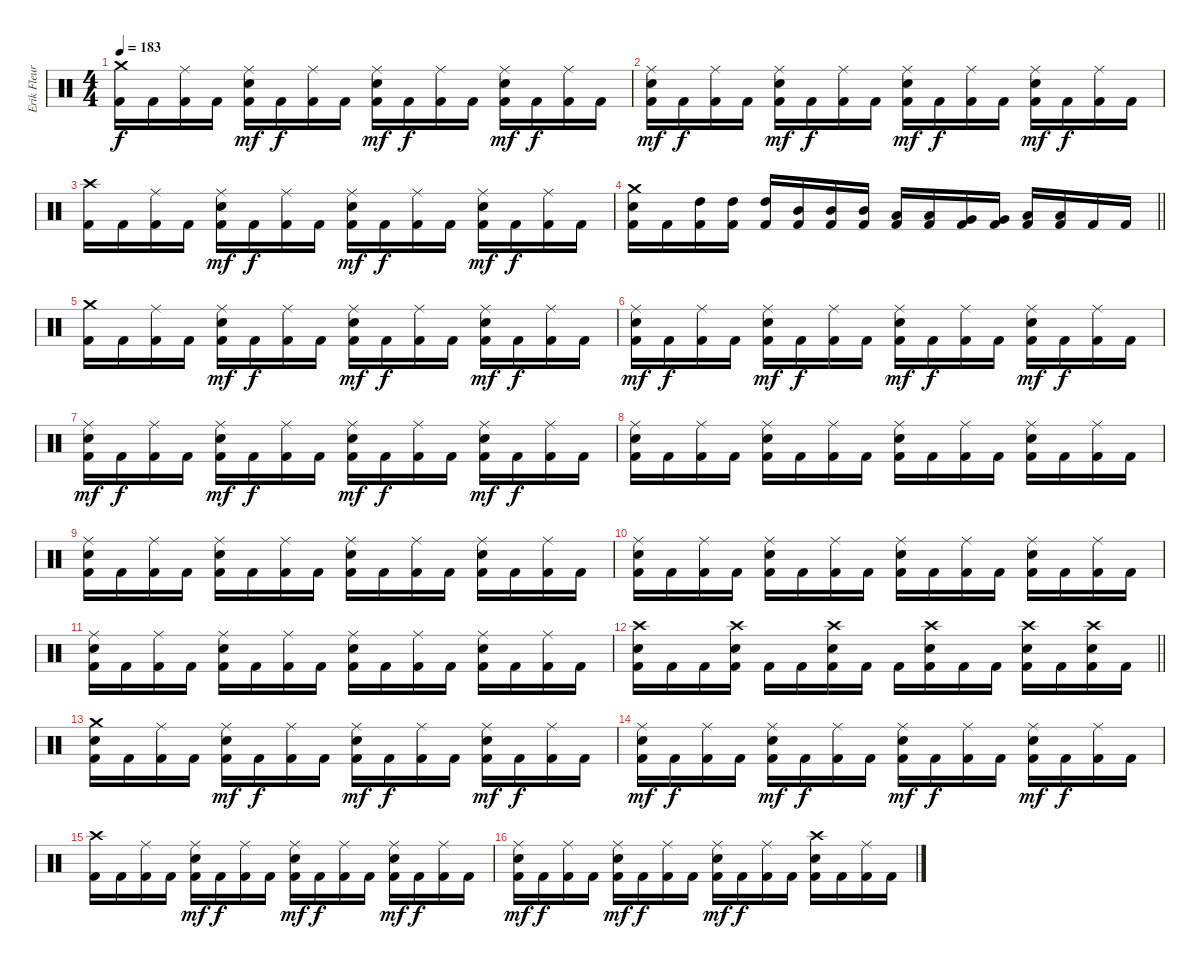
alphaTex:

\track ("Erik Fleuren" "Erik Fleur") {instrument percussion}
\staff {score}
\articulation defaults
\ts (4 4)
\tempo 183
\clef neutral
\ks c
("Crash medium (hit)" "Kick (hit) 2").16{dy f} "Kick (hit) 2".16 ("Ride (middle)" "Kick (hit) 2").16 "Kick (hit) 2".16 ("Ride (middle)" "Electric Snare (hit)" "Kick (hit) 2").16{dy mf} "Kick (hit) 2".16{dy f} ("Ride (middle)" "Kick (hit) 2").16 "Kick (hit) 2".16 ("Ride (middle)" "Electric Snare (hit)" "Kick (hit) 2").16{dy mf} "Kick (hit) 2".16{dy f} ("Ride (middle)" "Kick (hit) 2").16 "Kick (hit) 2".16 ("Ride (middle)" "Electric Snare (hit)" "Kick (hit) 2").16{dy mf} "Kick (hit) 2".16{dy f} ("Ride (middle)" "Kick (hit) 2").16 "Kick (hit) 2".16 |
("Ride (middle)" "Electric Snare (hit)" "Kick (hit) 2").16{dy mf} "Kick (hit) 2".16{dy f} ("Ride (middle)" "Kick (hit) 2").16 "Kick (hit) 2".16 ("Ride (middle)" "Electric Snare (hit)" "Kick (hit) 2").16{dy mf} "Kick (hit) 2".16{dy f} ("Ride (middle)" "Kick (hit) 2").16 "Kick (hit) 2".16 ("Ride (middle)" "Electric Snare (hit)" "Kick (hit) 2").16{dy mf} "Kick (hit) 2".16{dy f} ("Ride (middle)" "Kick (hit) 2").16 "Kick (hit) 2".16 ("Ride (middle)" "Electric Snare (hit)" "Kick (hit) 2").16{dy mf} "Kick (hit) 2".16{dy f} ("Ride (middle)" "Kick (hit) 2").16 "Kick (hit) 2".16 |
("Crash high (hit)" "Kick (hit) 2").16 "Kick (hit) 2".16 ("Ride (middle)" "Kick (hit) 2").16 "Kick (hit) 2".16 ("Ride (middle)" "Electric Snare (hit)" "Kick (hit) 2").16{dy mf} "Kick (hit) 2".16{dy f} ("Ride (middle)" "Kick (hit) 2").16 "Kick (hit) 2".16 ("Ride (middle)" "Electric Snare (hit)" "Kick (hit) 2").16{dy mf} "Kick (hit) 2".16{dy f} ("Ride (middle)" "Kick (hit) 2").16 "Kick (hit) 2".16 ("Ride (middle)" "Electric Snare (hit)" "Kick (hit) 2").16{dy mf} "Kick (hit) 2".16{dy f} ("Ride (middle)" "Kick (hit) 2").16 "Kick (hit) 2".16 |
\barLineRight lightlight
("Crash medium (hit)" "Electric Snare (hit)" "Kick (hit) 2").16 "Kick (hit) 2".16 ("High Tom (hit)" "Kick (hit) 2").16 ("High Tom (hit)" "Kick (hit) 2").16 ("High Tom (hit)" "Kick (hit) 2").16 ("Mid Tom (hit)" "Kick (hit) 2").16 ("Mid Tom (hit)" "Kick (hit) 2").16 ("Mid Tom (hit)" "Kick (hit) 2").16 ("Low Tom (hit)" "Kick (hit) 2").16 ("Low Tom (hit)" "Kick (hit) 2").16 ("Very Low Tom (hit)" "Kick (hit) 2").16 ("Very Low Tom (hit)" "Kick (hit) 2").16 ("Low Floor Tom (hit)" "Kick (hit) 2").16 ("Low Floor Tom (hit)" "Kick (hit) 2").16 "Kick (hit) 2".16 "Kick (hit) 2".16 |
("Crash medium (hit)" "Kick (hit) 2").16 "Kick (hit) 2".16 ("Ride (middle)" "Kick (hit) 2").16 "Kick (hit) 2".16 ("Ride (middle)" "Electric Snare (hit)" "Kick (hit) 2").16{dy mf} "Kick (hit) 2".16{dy f} ("Ride (middle)" "Kick (hit) 2").16 "Kick (hit) 2".16 ("Ride (middle)" "Electric Snare (hit)" "Kick (hit) 2").16{dy mf} "Kick (hit) 2".16{dy f} ("Ride (middle)" "Kick (hit) 2").16 "Kick (hit) 2".16 ("Ride (middle)" "Electric Snare (hit)" "Kick (hit) 2").16{dy mf} "Kick (hit) 2".16{dy f} ("Ride (middle)" "Kick (hit) 2").16 "Kick (hit) 2".16 |
("Ride (middle)" "Electric Snare (hit)" "Kick (hit) 2").16{dy mf} "Kick (hit) 2".16{dy f} ("Ride (middle)" "Kick (hit) 2").16 "Kick (hit) 2".16 ("Ride (middle)" "Electric Snare (hit)" "Kick (hit) 2").16{dy mf} "Kick (hit) 2".16{dy f} ("Ride (middle)" "Kick (hit) 2").16 "Kick (hit) 2".16 ("Ride (middle)" "Electric Snare (hit)" "Kick (hit) 2").16{dy mf} "Kick (hit) 2".16{dy f} ("Ride (middle)" "Kick (hit) 2").16 "Kick (hit) 2".16 ("Ride (middle)" "Electric Snare (hit)" "Kick (hit) 2").16{dy mf} "Kick (hit) 2".16{dy f} ("Ride (middle)" "Kick (hit) 2").16 "Kick (hit) 2".16 |
("Ride (middle)" "Electric Snare (hit)" "Kick (hit) 2").16{dy mf} "Kick (hit) 2".16{dy f} ("Ride (middle)" "Kick (hit) 2").16 "Kick (hit) 2".16 ("Ride (middle)" "Electric Snare (hit)" "Kick (hit) 2").16{dy mf} "Kick (hit) 2".16{dy f} ("Ride (middle)" "Kick (hit) 2").16 "Kick (hit) 2".16 ("Ride (middle)" "Electric Snare (hit)" "Kick (hit) 2").16{dy mf} "Kick (hit) 2".16{dy f} ("Ride (middle)" "Kick (hit) 2").16 "Kick (hit) 2".16 ("Ride (middle)" "Electric Snare (hit)" "Kick (hit) 2").16{dy mf} "Kick (hit) 2".16{dy f} ("Ride (middle)" "Kick (hit) 2").16 "Kick (hit) 2".16 |
("Ride (middle)" "Electric Snare (hit)" "Kick (hit) 2").16 "Kick (hit) 2".16 ("Ride (middle)" "Kick (hit) 2").16 "Kick (hit) 2".16 ("Ride (middle)" "Electric Snare (hit)" "Kick (hit) 2").16 "Kick (hit) 2".16 ("Ride (middle)" "Kick (hit) 2").16 "Kick (hit) 2".16 ("Ride (middle)" "Electric Snare (hit)" "Kick (hit) 2").16 "Kick (hit) 2".16 ("Ride (middle)" "Kick (hit) 2").16 "Kick (hit) 2".16 ("Ride (middle)" "Electric Snare (hit)" "Kick (hit) 2").16 "Kick (hit) 2".16 ("Ride (middle)" "Kick (hit) 2").16 "Kick (hit) 2".16 |
("Ride (middle)" "Electric Snare (hit)" "Kick (hit) 2").16 "Kick (hit) 2".16 ("Ride (middle)" "Kick (hit) 2").16 "Kick (hit) 2".16 ("Ride (middle)" "Electric Snare (hit)" "Kick (hit) 2").16 "Kick (hit) 2".16 ("Ride (middle)" "Kick (hit) 2").16 "Kick (hit) 2".16 ("Ride (middle)" "Electric Snare (hit)" "Kick (hit) 2").16 "Kick (hit) 2".16 ("Ride (middle)" "Kick (hit) 2").16 "Kick (hit) 2".16 ("Ride (middle)" "Electric Snare (hit)" "Kick (hit) 2").16 "Kick (hit) 2".16 ("Ride (middle)" "Kick (hit) 2").16 "Kick (hit) 2".16 |
("Ride (middle)" "Electric Snare (hit)" "Kick (hit) 2").16 "Kick (hit) 2".16 ("Ride (middle)" "Kick (hit) 2").16 "Kick (hit) 2".16 ("Ride (middle)" "Electric Snare (hit)" "Kick (hit) 2").16 "Kick (hit) 2".16 ("Ride (middle)" "Kick (hit) 2").16 "Kick (hit) 2".16 ("Ride (middle)" "Electric Snare (hit)" "Kick (hit) 2").16 "Kick (hit) 2".16 ("Ride (middle)" "Kick (hit) 2").16 "Kick (hit) 2".16 ("Ride (middle)" "Electric Snare (hit)" "Kick (hit) 2").16 "Kick (hit) 2".16 ("Ride (middle)" "Kick (hit) 2").16 "Kick (hit) 2".16 |
("Ride (middle)" "Electric Snare (hit)" "Kick (hit) 2").16 "Kick (hit) 2".16 ("Ride (middle)" "Kick (hit) 2").16 "Kick (hit) 2".16 ("Ride (middle)" "Electric Snare (hit)" "Kick (hit) 2").16 "Kick (hit) 2".16 ("Ride (middle)" "Kick (hit) 2").16 "Kick (hit) 2".16 ("Ride (middle)" "Electric Snare (hit)" "Kick (hit) 2").16 "Kick (hit) 2".16 ("Ride (middle)" "Kick (hit) 2").16 "Kick (hit) 2".16 ("Ride (middle)" "Electric Snare (hit)" "Kick (hit) 2").16 "Kick (hit) 2".16 ("Ride (middle)" "Kick (hit) 2").16 "Kick (hit) 2".16 |
\barLineRight lightlight
("Crash high (hit)" "Electric Snare (hit)" "Kick (hit) 2").16 "Kick (hit) 2".16 "Kick (hit) 2".16 ("Crash high (hit)" "Electric Snare (hit)" "Kick (hit) 2").16 "Kick (hit) 2".16 "Kick (hit) 2".16 ("Crash high (hit)" "Electric Snare (hit)" "Kick (hit) 2").16 "Kick (hit) 2".16 "Kick (hit) 2".16 ("Crash high (hit)" "Electric Snare (hit)" "Kick (hit) 2").16 "Kick (hit) 2".16 "Kick (hit) 2".16 ("Crash high (hit)" "Electric Snare (hit)" "Kick (hit) 2").16 "Kick (hit) 2".16 ("Crash high (hit)" "Electric Snare (hit)" "Kick (hit) 2").16 "Kick (hit) 2".16 |
("Crash medium (hit)" "Electric Snare (hit)" "Kick (hit) 2").16 "Kick (hit) 2".16 ("Ride (middle)" "Kick (hit) 2").16 "Kick (hit) 2".16 ("Ride (middle)" "Electric Snare (hit)" "Kick (hit) 2").16{dy mf} "Kick (hit) 2".16{dy f} ("Ride (middle)" "Kick (hit) 2").16 "Kick (hit) 2".16 ("Ride (middle)" "Electric Snare (hit)" "Kick (hit) 2").16{dy mf} "Kick (hit) 2".16{dy f} ("Ride (middle)" "Kick (hit) 2").16 "Kick (hit) 2".16 ("Ride (middle)" "Electric Snare (hit)" "Kick (hit) 2").16{dy mf} "Kick (hit) 2".16{dy f} ("Ride (middle)" "Kick (hit) 2").16 "Kick (hit) 2".16 |
("Ride (middle)" "Electric Snare (hit)" "Kick (hit) 2").16{dy mf} "Kick (hit) 2".16{dy f} ("Ride (middle)" "Kick (hit) 2").16 "Kick (hit) 2".16 ("Ride (middle)" "Electric Snare (hit)" "Kick (hit) 2").16{dy mf} "Kick (hit) 2".16{dy f} ("Ride (middle)" "Kick (hit) 2").16 "Kick (hit) 2".16 ("Ride (middle)" "Electric Snare (hit)" "Kick (hit) 2").16{dy mf} "Kick (hit) 2".16{dy f} ("Ride (middle)" "Kick (hit) 2").16 "Kick (hit) 2".16 ("Ride (middle)" "Electric Snare (hit)" "Kick (hit) 2").16{dy mf} "Kick (hit) 2".16{dy f} ("Ride (middle)" "Kick (hit) 2").16 "Kick (hit) 2".16 |
("Crash high (hit)" "Kick (hit) 2").16 "Kick (hit) 2".16 ("Ride (middle)" "Kick (hit) 2").16 "Kick (hit) 2".16 ("Ride (middle)" "Electric Snare (hit)" "Kick (hit) 2").16{dy mf} "Kick (hit) 2".16{dy f} ("Ride (middle)" "Kick (hit) 2").16 "Kick (hit) 2".16 ("Ride (middle)" "Electric Snare (hit)" "Kick (hit) 2").16{dy mf} "Kick (hit) 2".16{dy f} ("Ride (middle)" "Kick (hit) 2").16 "Kick (hit) 2".16 ("Ride (middle)" "Electric Snare (hit)" "Kick (hit) 2").16{dy mf} "Kick (hit) 2".16{dy f} ("Ride (middle)" "Kick (hit) 2").16 "Kick (hit) 2".16 |
("Ride (middle)" "Electric Snare (hit)" "Kick (hit) 2").16{dy mf} "Kick (hit) 2".16{dy f} ("Ride (middle)" "Kick (hit) 2").16 "Kick (hit) 2".16 ("Ride (middle)" "Electric Snare (hit)" "Kick (hit) 2").16{dy mf} "Kick (hit) 2".16{dy f} ("Ride (middle)" "Kick (hit) 2").16 "Kick (hit) 2".16 ("Ride (middle)" "Electric Snare (hit)" "Kick (hit) 2").16{dy mf} "Kick (hit) 2".16{dy f} ("Ride (middle)" "Kick (hit) 2").16 "Kick (hit) 2".16 ("Crash high (hit)" "Electric Snare (hit)" "Kick (hit) 2").16 "Kick (hit) 2".16 ("Ride (middle)" "Kick (hit) 2").16 "Kick (hit) 2".16
